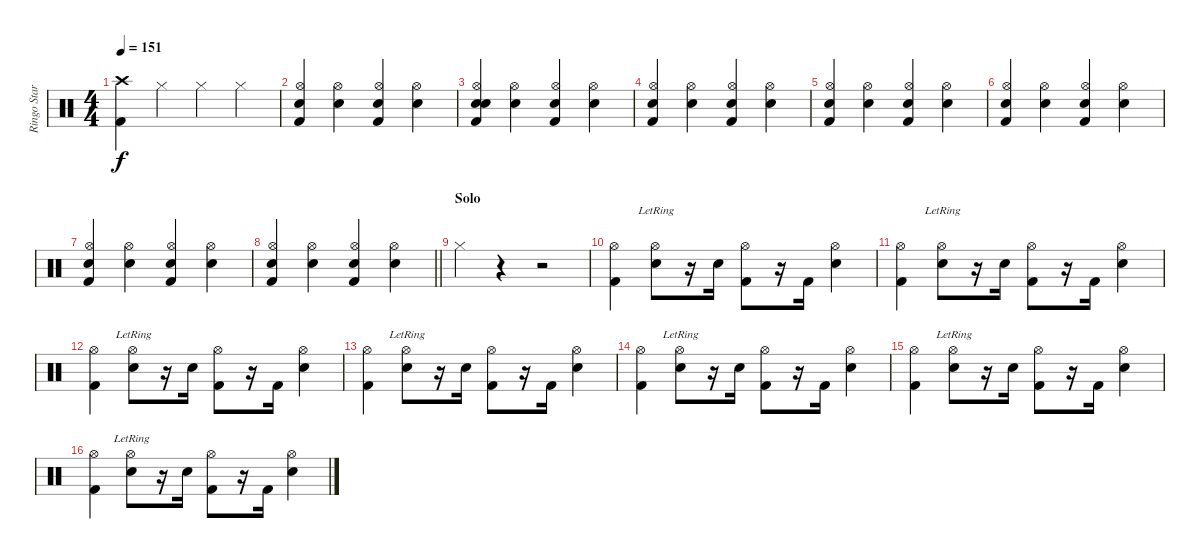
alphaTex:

\track ("Ringo Star" "Ringo Star") {instrument percussion}
\staff {score}
\articulation defaults
\ts (4 4)
\tempo 151
\clef neutral
\ks c
("Crash high (hit)" "Kick (hit) 2").4{dy f} "Hi-Hat (closed)".4 "Hi-Hat (closed)".4 "Hi-Hat (closed)".4 |
("Hi-Hat (open)" "Snare (hit) 2" "Kick (hit) 2").4 ("Hi-Hat (open)" "Snare (hit) 2").4 ("Hi-Hat (open)" "Snare (hit) 2" "Kick (hit) 2").4 ("Hi-Hat (open)" "Snare (hit) 2").4 |
("Hi-Hat (open)" "Snare (hit) 2" "Kick (hit) 2" "Electric Snare (hit)").4 ("Hi-Hat (open)" "Snare (hit) 2").4 ("Hi-Hat (open)" "Snare (hit) 2" "Kick (hit) 2").4 ("Hi-Hat (open)" "Snare (hit) 2").4 |
("Hi-Hat (open)" "Snare (hit) 2" "Kick (hit) 2").4 ("Hi-Hat (open)" "Snare (hit) 2").4 ("Hi-Hat (open)" "Snare (hit) 2" "Kick (hit) 2").4 ("Hi-Hat (open)" "Snare (hit) 2").4 |
("Hi-Hat (open)" "Snare (hit) 2" "Kick (hit) 2").4 ("Hi-Hat (open)" "Snare (hit) 2").4 ("Hi-Hat (open)" "Snare (hit) 2" "Kick (hit) 2").4 ("Hi-Hat (open)" "Snare (hit) 2").4 |
("Hi-Hat (open)" "Snare (hit) 2" "Kick (hit) 2").4 ("Hi-Hat (open)" "Snare (hit) 2").4 ("Hi-Hat (open)" "Snare (hit) 2" "Kick (hit) 2").4 ("Hi-Hat (open)" "Snare (hit) 2").4 |
("Hi-Hat (open)" "Snare (hit) 2" "Kick (hit) 2").4 ("Hi-Hat (open)" "Snare (hit) 2").4 ("Hi-Hat (open)" "Snare (hit) 2" "Kick (hit) 2").4 ("Hi-Hat (open)" "Snare (hit) 2").4 |
\barLineRight lightlight
("Hi-Hat (open)" "Snare (hit) 2" "Kick (hit) 2").4 ("Hi-Hat (open)" "Snare (hit) 2").4 ("Hi-Hat (open)" "Snare (hit) 2" "Kick (hit) 2").4 ("Hi-Hat (open)" "Snare (hit) 2").4 |
\section ("" "Solo")
"Hi-Hat (closed)".4 r.4 r.2 |
("Hi-Hat (open)" "Kick (hit) 2").4 ("Hi-Hat (open)"{lr} "Snare (hit) 2").8 r.16 "Snare (hit) 2".16 ("Hi-Hat (open)" "Kick (hit) 2").8 r.16 "Kick (hit) 2".16 ("Hi-Hat (open)" "Snare (hit) 2").4 |
("Hi-Hat (open)" "Kick (hit) 2").4 ("Hi-Hat (open)"{lr} "Snare (hit) 2").8 r.16 "Snare (hit) 2".16 ("Hi-Hat (open)" "Kick (hit) 2").8 r.16 "Kick (hit) 2".16 ("Hi-Hat (open)" "Snare (hit) 2").4 |
("Hi-Hat (open)" "Kick (hit) 2").4 ("Hi-Hat (open)"{lr} "Snare (hit) 2").8 r.16 "Snare (hit) 2".16 ("Hi-Hat (open)" "Kick (hit) 2").8 r.16 "Kick (hit) 2".16 ("Hi-Hat (open)" "Snare (hit) 2").4 |
("Hi-Hat (open)" "Kick (hit) 2").4 ("Hi-Hat (open)"{lr} "Snare (hit) 2").8 r.16 "Snare (hit) 2".16 ("Hi-Hat (open)" "Kick (hit) 2").8 r.16 "Kick (hit) 2".16 ("Hi-Hat (open)" "Snare (hit) 2").4 |
("Hi-Hat (open)" "Kick (hit) 2").4 ("Hi-Hat (open)"{lr} "Snare (hit) 2").8 r.16 "Snare (hit) 2".16 ("Hi-Hat (open)" "Kick (hit) 2").8 r.16 "Kick (hit) 2".16 ("Hi-Hat (open)" "Snare (hit) 2").4 |
("Hi-Hat (open)" "Kick (hit) 2").4 ("Hi-Hat (open)"{lr} "Snare (hit) 2").8 r.16 "Snare (hit) 2".16 ("Hi-Hat (open)" "Kick (hit) 2").8 r.16 "Kick (hit) 2".16 ("Hi-Hat (open)" "Snare (hit) 2").4 |
("Hi-Hat (open)" "Kick (hit) 2").4 ("Hi-Hat (open)"{lr} "Snare (hit) 2").8 r.16 "Snare (hit) 2".16 ("Hi-Hat (open)" "Kick (hit) 2").8 r.16 "Kick (hit) 2".16 ("Hi-Hat (open)" "Snare (hit) 2").4
